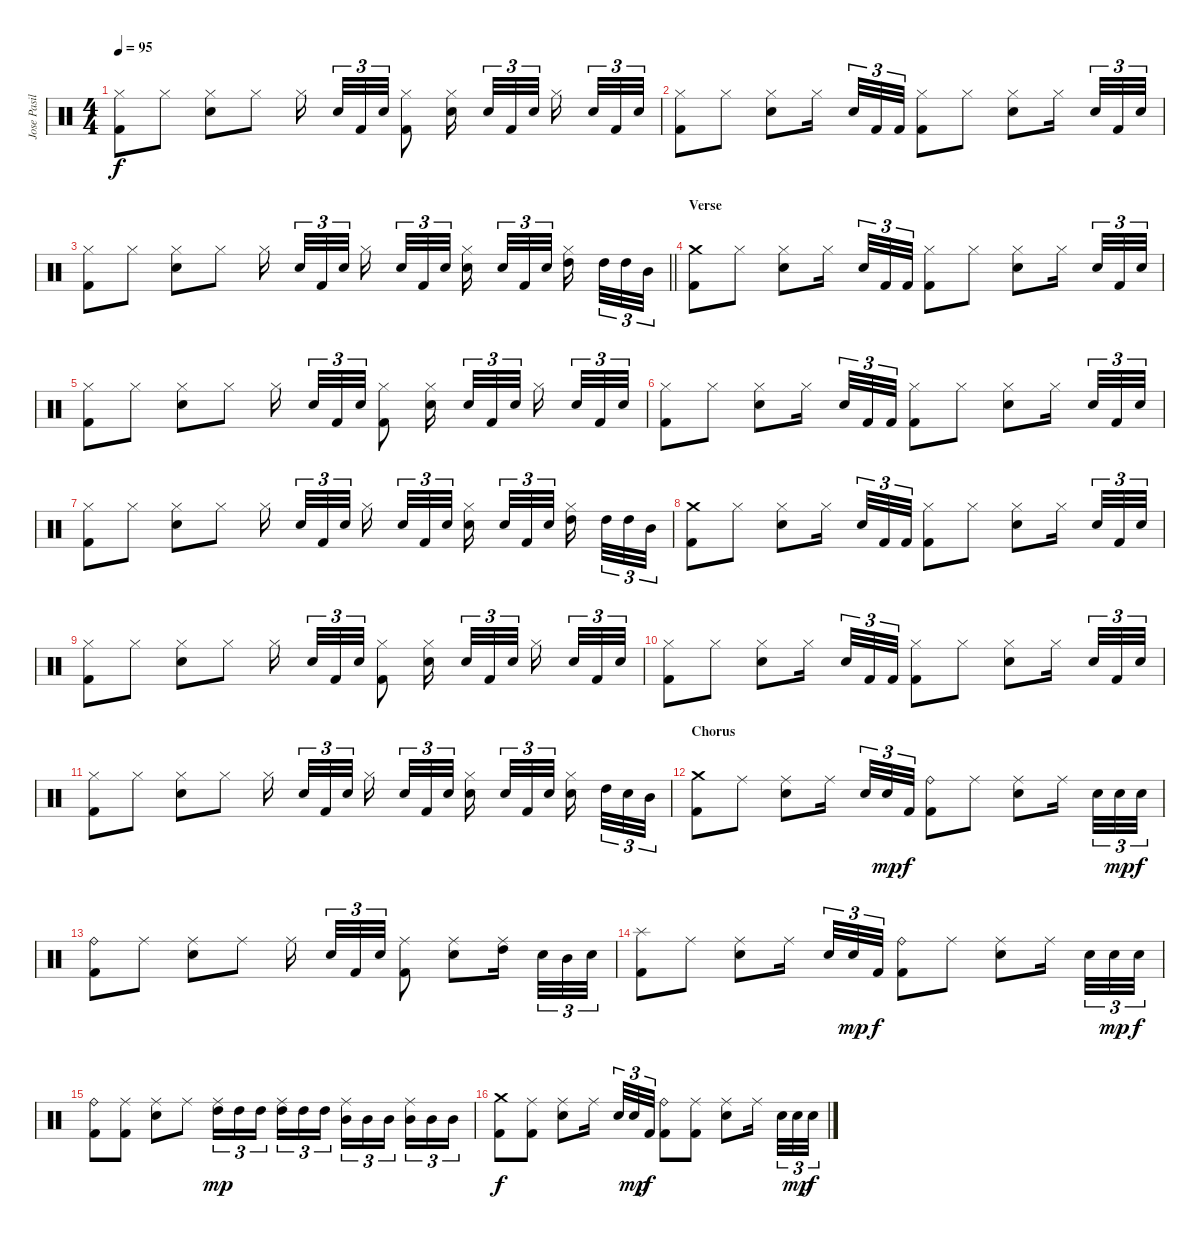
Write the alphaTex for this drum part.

\track ("Jose Pasillas II - Drums" "Jose Pasil") {instrument percussion}
\staff {score}
\articulation defaults
\ts (4 4)
\tempo 95
\clef neutral
\ks aminor
("Hi-Hat (closed)" "Kick (hit) 2").8{dy f} "Hi-Hat (closed)".8 ("Hi-Hat (closed)" "Electric Snare (hit)").8 "Hi-Hat (closed)".8 "Hi-Hat (closed)".16 "Snare (hit)"{x}.32{tu (3 2)} "Kick (hit) 2".32{tu (3 2)} "Snare (hit)"{x}.32{tu (3 2)} ("Hi-Hat (closed)" "Kick (hit) 2").8 ("Hi-Hat (closed)" "Electric Snare (hit)").16 "Snare (hit)"{x}.32{tu (3 2)} "Kick (hit) 2".32{tu (3 2)} "Snare (hit)"{x}.32{tu (3 2)} "Hi-Hat (closed)".16 "Snare (hit)"{x}.32{tu (3 2)} "Kick (hit) 2".32{tu (3 2)} "Snare (hit)"{x}.32{tu (3 2)} |
("Hi-Hat (closed)" "Kick (hit) 2").8 "Hi-Hat (closed)".8 ("Hi-Hat (closed)" "Electric Snare (hit)").8 "Hi-Hat (closed)".16 "Snare (hit)"{x}.32{tu (3 2)} "Kick (hit) 2".32{tu (3 2)} "Kick (hit) 2"{x}.32{tu (3 2)} ("Hi-Hat (closed)" "Kick (hit) 2").8 "Hi-Hat (closed)".8 ("Hi-Hat (closed)" "Electric Snare (hit)").8 "Hi-Hat (closed)".16 "Snare (hit)"{x}.32{tu (3 2)} "Kick (hit) 2".32{tu (3 2)} "Snare (hit)"{x}.32{tu (3 2)} |
\barLineRight lightlight
("Hi-Hat (closed)" "Kick (hit) 2").8 "Hi-Hat (closed)".8 ("Hi-Hat (closed)" "Electric Snare (hit)").8 "Hi-Hat (closed)".8 "Hi-Hat (closed)".16 "Snare (hit)"{x}.32{tu (3 2)} "Kick (hit) 2".32{tu (3 2)} "Snare (hit)"{x}.32{tu (3 2)} "Hi-Hat (closed)".16 "Snare (hit)"{x}.32{tu (3 2)} "Kick (hit) 2".32{tu (3 2)} "Snare (hit)"{x}.32{tu (3 2)} ("Hi-Hat (closed)" "Electric Snare (hit)").16 "Snare (hit)"{x}.32{tu (3 2)} "Kick (hit) 2".32{tu (3 2)} "Snare (hit)"{x}.32{tu (3 2)} ("Hi-Hat (closed)" "High Tom (hit)").16 "High Tom (hit)"{x}.32{tu (3 2)} "High Tom (hit)".32{tu (3 2)} "Mid Tom (hit)"{x}.32{tu (3 2)} |
\section ("" "Verse")
("Crash medium (hit)" "Kick (hit) 2").8 "Hi-Hat (closed)".8 ("Hi-Hat (closed)" "Electric Snare (hit)").8 "Hi-Hat (closed)".16 "Snare (hit)"{x}.32{tu (3 2)} "Kick (hit) 2".32{tu (3 2)} "Kick (hit) 2"{x}.32{tu (3 2)} ("Hi-Hat (closed)" "Kick (hit) 2").8 "Hi-Hat (closed)".8 ("Hi-Hat (closed)" "Electric Snare (hit)").8 "Hi-Hat (closed)".16 "Snare (hit)"{x}.32{tu (3 2)} "Kick (hit) 2".32{tu (3 2)} "Snare (hit)"{x}.32{tu (3 2)} |
("Hi-Hat (closed)" "Kick (hit) 2").8 "Hi-Hat (closed)".8 ("Hi-Hat (closed)" "Electric Snare (hit)").8 "Hi-Hat (closed)".8 "Hi-Hat (closed)".16 "Snare (hit)"{x}.32{tu (3 2)} "Kick (hit) 2".32{tu (3 2)} "Snare (hit)"{x}.32{tu (3 2)} ("Hi-Hat (closed)" "Kick (hit) 2").8 ("Hi-Hat (closed)" "Electric Snare (hit)").16 "Snare (hit)"{x}.32{tu (3 2)} "Kick (hit) 2".32{tu (3 2)} "Snare (hit)"{x}.32{tu (3 2)} "Hi-Hat (closed)".16 "Snare (hit)"{x}.32{tu (3 2)} "Kick (hit) 2".32{tu (3 2)} "Snare (hit)"{x}.32{tu (3 2)} |
("Hi-Hat (closed)" "Kick (hit) 2").8 "Hi-Hat (closed)".8 ("Hi-Hat (closed)" "Electric Snare (hit)").8 "Hi-Hat (closed)".16 "Snare (hit)"{x}.32{tu (3 2)} "Kick (hit) 2".32{tu (3 2)} "Kick (hit) 2"{x}.32{tu (3 2)} ("Hi-Hat (closed)" "Kick (hit) 2").8 "Hi-Hat (closed)".8 ("Hi-Hat (closed)" "Electric Snare (hit)").8 "Hi-Hat (closed)".16 "Snare (hit)"{x}.32{tu (3 2)} "Kick (hit) 2".32{tu (3 2)} "Snare (hit)"{x}.32{tu (3 2)} |
("Hi-Hat (closed)" "Kick (hit) 2").8 "Hi-Hat (closed)".8 ("Hi-Hat (closed)" "Electric Snare (hit)").8 "Hi-Hat (closed)".8 "Hi-Hat (closed)".16 "Snare (hit)"{x}.32{tu (3 2)} "Kick (hit) 2".32{tu (3 2)} "Snare (hit)"{x}.32{tu (3 2)} "Hi-Hat (closed)".16 "Snare (hit)"{x}.32{tu (3 2)} "Kick (hit) 2".32{tu (3 2)} "Snare (hit)"{x}.32{tu (3 2)} ("Hi-Hat (closed)" "Electric Snare (hit)").16 "Snare (hit)"{x}.32{tu (3 2)} "Kick (hit) 2".32{tu (3 2)} "Snare (hit)"{x}.32{tu (3 2)} ("Hi-Hat (closed)" "High Tom (hit)").16 "High Tom (hit)"{x}.32{tu (3 2)} "High Tom (hit)".32{tu (3 2)} "Mid Tom (hit)"{x}.32{tu (3 2)} |
("Crash medium (hit)" "Kick (hit) 2").8 "Hi-Hat (closed)".8 ("Hi-Hat (closed)" "Electric Snare (hit)").8 "Hi-Hat (closed)".16 "Snare (hit)"{x}.32{tu (3 2)} "Kick (hit) 2".32{tu (3 2)} "Kick (hit) 2"{x}.32{tu (3 2)} ("Hi-Hat (closed)" "Kick (hit) 2").8 "Hi-Hat (closed)".8 ("Hi-Hat (closed)" "Electric Snare (hit)").8 "Hi-Hat (closed)".16 "Snare (hit)"{x}.32{tu (3 2)} "Kick (hit) 2".32{tu (3 2)} "Snare (hit)"{x}.32{tu (3 2)} |
("Hi-Hat (closed)" "Kick (hit) 2").8 "Hi-Hat (closed)".8 ("Hi-Hat (closed)" "Electric Snare (hit)").8 "Hi-Hat (closed)".8 "Hi-Hat (closed)".16 "Snare (hit)"{x}.32{tu (3 2)} "Kick (hit) 2".32{tu (3 2)} "Snare (hit)"{x}.32{tu (3 2)} ("Hi-Hat (closed)" "Kick (hit) 2").8 ("Hi-Hat (closed)" "Electric Snare (hit)").16 "Snare (hit)"{x}.32{tu (3 2)} "Kick (hit) 2".32{tu (3 2)} "Snare (hit)"{x}.32{tu (3 2)} "Hi-Hat (closed)".16 "Snare (hit)"{x}.32{tu (3 2)} "Kick (hit) 2".32{tu (3 2)} "Snare (hit)"{x}.32{tu (3 2)} |
("Hi-Hat (closed)" "Kick (hit) 2").8 "Hi-Hat (closed)".8 ("Hi-Hat (closed)" "Electric Snare (hit)").8 "Hi-Hat (closed)".16 "Snare (hit)"{x}.32{tu (3 2)} "Kick (hit) 2".32{tu (3 2)} "Kick (hit) 2"{x}.32{tu (3 2)} ("Hi-Hat (closed)" "Kick (hit) 2").8 "Hi-Hat (closed)".8 ("Hi-Hat (closed)" "Electric Snare (hit)").8 "Hi-Hat (closed)".16 "Snare (hit)"{x}.32{tu (3 2)} "Kick (hit) 2".32{tu (3 2)} "Snare (hit)"{x}.32{tu (3 2)} |
("Hi-Hat (closed)" "Kick (hit) 2").8 "Hi-Hat (closed)".8 ("Hi-Hat (closed)" "Electric Snare (hit)").8 "Hi-Hat (closed)".8 "Hi-Hat (closed)".16 "Snare (hit)"{x}.32{tu (3 2)} "Kick (hit) 2".32{tu (3 2)} "Snare (hit)"{x}.32{tu (3 2)} "Hi-Hat (closed)".16 "Snare (hit)"{x}.32{tu (3 2)} "Kick (hit) 2".32{tu (3 2)} "Snare (hit)"{x}.32{tu (3 2)} ("Hi-Hat (closed)" "Electric Snare (hit)").16 "Snare (hit)"{x}.32{tu (3 2)} "Kick (hit) 2".32{tu (3 2)} "Snare (hit)"{x}.32{tu (3 2)} ("Hi-Hat (closed)" "Electric Snare (hit)").16 "High Tom (hit)"{x}.32{tu (3 2)} "Electric Snare (hit)".32{tu (3 2)} "Mid Tom (hit)"{x}.32{tu (3 2)} |
\section ("" "Chorus")
("Crash medium (hit)" "Kick (hit) 2").8 "Ride (middle)".8 ("Ride (middle)" "Electric Snare (hit)").8 "Ride (middle)".16 "Snare (hit)"{x}.32{tu (3 2)} "Electric Snare (hit)".32{tu (3 2) dy mp} "Kick (hit) 2"{x}.32{tu (3 2) dy f} ("Ride (bell)" "Kick (hit) 2").8 "Ride (middle)".8 ("Ride (middle)" "Electric Snare (hit)").8 "Ride (middle)".16 "Snare (hit)"{x}.32{tu (3 2)} "Electric Snare (hit)".32{tu (3 2) dy mp} "Snare (hit)"{x}.32{tu (3 2) dy f} |
("Ride (bell)" "Kick (hit) 2").8 "Ride (middle)".8 ("Ride (middle)" "Electric Snare (hit)").8 "Ride (middle)".8 "Ride (middle)".16 "Snare (hit)"{x}.32{tu (3 2)} "Kick (hit) 2".32{tu (3 2)} "Snare (hit)"{x}.32{tu (3 2)} ("Ride (middle)" "Kick (hit) 2").8 ("Ride (middle)" "Electric Snare (hit)").8 ("Ride (middle)" "High Tom (hit)").16 "Snare (hit)"{x}.32{tu (3 2)} "Mid Tom (hit)".32{tu (3 2)} "Snare (hit)"{x}.32{tu (3 2)} |
("Splash (hit)" "Kick (hit) 2").8 "Ride (middle)".8 ("Ride (middle)" "Electric Snare (hit)").8 "Ride (middle)".16 "Snare (hit)"{x}.32{tu (3 2)} "Electric Snare (hit)".32{tu (3 2) dy mp} "Kick (hit) 2"{x}.32{tu (3 2) dy f} ("Ride (bell)" "Kick (hit) 2").8 "Ride (middle)".8 ("Ride (middle)" "Electric Snare (hit)").8 "Ride (middle)".16 "Snare (hit)"{x}.32{tu (3 2)} "Electric Snare (hit)".32{tu (3 2) dy mp} "Snare (hit)"{x}.32{tu (3 2) dy f} |
("Ride (bell)" "Kick (hit) 2").8 ("Ride (middle)" "Kick (hit) 2").8 ("Ride (middle)" "Electric Snare (hit)").8 "Ride (middle)".8 ("Ride (middle)" "High Tom (hit)").16{tu (3 2) dy mp} "High Tom (hit)".16{tu (3 2)} "High Tom (hit)".16{tu (3 2)} ("Ride (middle)" "High Tom (hit)").16{tu (3 2)} "High Tom (hit)".16{tu (3 2)} "High Tom (hit)".16{tu (3 2)} ("Ride (middle)" "Mid Tom (hit)").16{tu (3 2)} "Mid Tom (hit)".16{tu (3 2)} "Mid Tom (hit)".16{tu (3 2)} ("Ride (middle)" "Mid Tom (hit)").16{tu (3 2)} "Mid Tom (hit)".16{tu (3 2)} "Mid Tom (hit)".16{tu (3 2)} |
("Crash medium (hit)" "Kick (hit) 2").8{dy f} ("Ride (middle)" "Kick (hit) 2").8 ("Ride (middle)" "Electric Snare (hit)").8 "Ride (middle)".16 "Snare (hit)"{x}.32{tu (3 2)} "Electric Snare (hit)".32{tu (3 2) dy mp} "Kick (hit) 2"{x}.32{tu (3 2) dy f} ("Ride (bell)" "Kick (hit) 2").8 ("Ride (middle)" "Kick (hit) 2").8 ("Ride (middle)" "Electric Snare (hit)").8 "Ride (middle)".16 "Snare (hit)"{x}.32{tu (3 2)} "Electric Snare (hit)".32{tu (3 2) dy mp} "Snare (hit)"{x}.32{tu (3 2) dy f}
